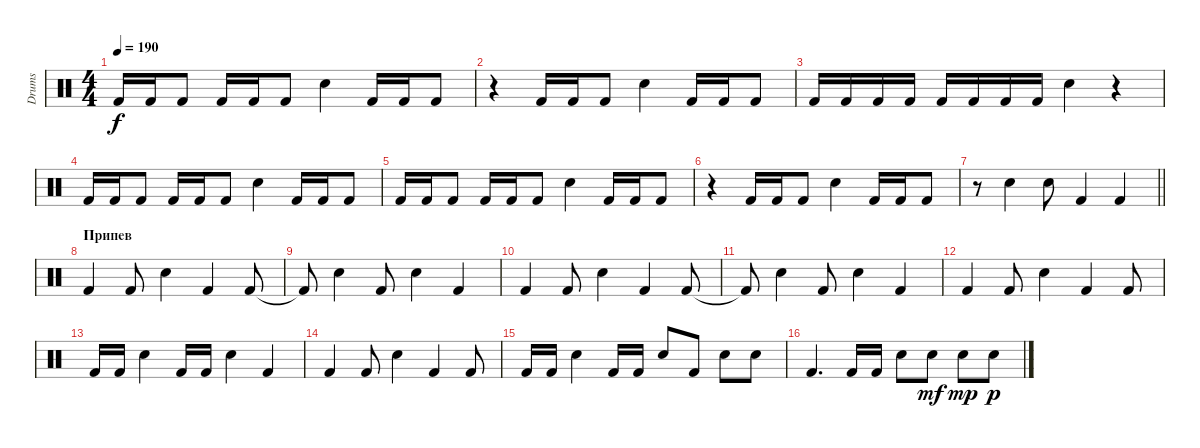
\track ("Drums" "Drums") {instrument percussion}
\staff {score}
\articulation defaults
\ts (4 4)
\tempo 190
\clef neutral
\ks c "Kick (hit) 2".16{dy f} "Kick (hit) 2".16 "Kick (hit) 2".8 "Kick (hit) 2".16 "Kick (hit) 2".16 "Kick (hit) 2".8 "Snare (hit) 2".4 "Kick (hit) 2".16 "Kick (hit) 2".16 "Kick (hit) 2".8
|
r.4 "Kick (hit) 2".16 "Kick (hit) 2".16 "Kick (hit) 2".8 "Snare (hit) 2".4 "Kick (hit) 2".16 "Kick (hit) 2".16 "Kick (hit) 2".8 |
"Kick (hit) 2".16 "Kick (hit) 2".16 "Kick (hit) 2".16 "Kick (hit) 2".16 "Kick (hit) 2".16 "Kick (hit) 2".16 "Kick (hit) 2".16 "Kick (hit) 2".16 "Snare (hit) 2".4 r.4 |
"Kick (hit) 2".16 "Kick (hit) 2".16 "Kick (hit) 2".8 "Kick (hit) 2".16 "Kick (hit) 2".16 "Kick (hit) 2".8 "Snare (hit) 2".4 "Kick (hit) 2".16 "Kick (hit) 2".16 "Kick (hit) 2".8 |
"Kick (hit) 2".16 "Kick (hit) 2".16 "Kick (hit) 2".8 "Kick (hit) 2".16 "Kick (hit) 2".16 "Kick (hit) 2".8 "Snare (hit) 2".4 "Kick (hit) 2".16 "Kick (hit) 2".16 "Kick (hit) 2".8 |
r.4 "Kick (hit) 2".16 "Kick (hit) 2".16 "Kick (hit) 2".8 "Snare (hit) 2".4 "Kick (hit) 2".16 "Kick (hit) 2".16 "Kick (hit) 2".8 |
\barLineRight lightlight
r.8 "Snare (hit) 2".4 "Snare (hit) 2".8 "Kick (hit) 2".4 "Kick (hit) 2".4 |
\section ("" "Припев")
"Kick (hit) 2".4 "Kick (hit) 2".8 "Snare (hit) 2".4 "Kick (hit) 2".4 "Kick (hit) 2".8 |
"Kick (hit) 2"{t}.8 "Snare (hit) 2".4 "Kick (hit) 2".8 "Snare (hit) 2".4 "Kick (hit) 2".4 |
"Kick (hit) 2".4 "Kick (hit) 2".8 "Snare (hit) 2".4 "Kick (hit) 2".4 "Kick (hit) 2".8 |
"Kick (hit) 2"{t}.8 "Snare (hit) 2".4 "Kick (hit) 2".8 "Snare (hit) 2".4 "Kick (hit) 2".4 |
"Kick (hit) 2".4 "Kick (hit) 2".8 "Snare (hit) 2".4 "Kick (hit) 2".4 "Kick (hit) 2".8 |
"Kick (hit) 2".16 "Kick (hit) 2".16 "Snare (hit) 2".4 "Kick (hit) 2".16 "Kick (hit) 2".16 "Snare (hit) 2".4 "Kick (hit) 2".4 |
"Kick (hit) 2".4 "Kick (hit) 2".8 "Snare (hit) 2".4 "Kick (hit) 2".4 "Kick (hit) 2".8 |
"Kick (hit) 2".16 "Kick (hit) 2".16 "Snare (hit) 2".4 "Kick (hit) 2".16 "Kick (hit) 2".16 "Snare (hit) 2".8 "Kick (hit) 2".8 "Snare (hit) 2".8 "Snare (hit) 2".8 |
"Kick (hit) 2".4{d} "Kick (hit) 2".16 "Kick (hit) 2".16 "Snare (hit) 2".8 "Snare (hit) 2".8{dy mf} "Snare (hit) 2".8{dy mp} "Snare (hit) 2".8{dy p}
